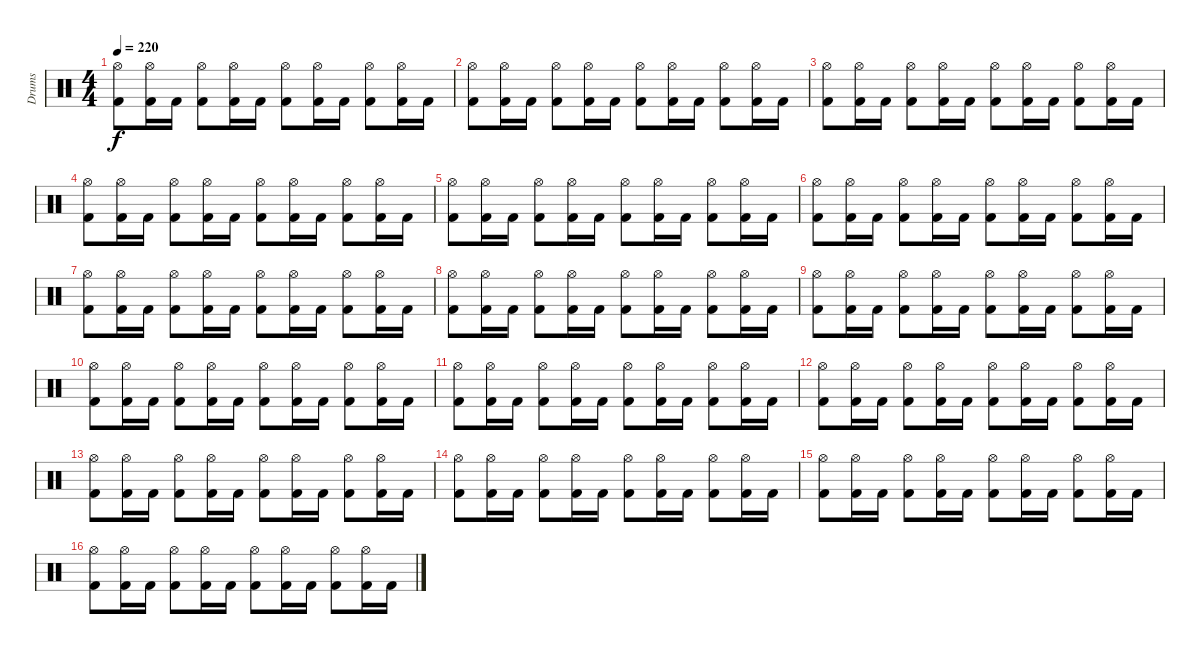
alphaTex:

\track ("Drums" "Drums") {instrument percussion}
\staff {score}
\articulation defaults
\ts (4 4)
\tempo 220
\clef neutral
\ks c
("Hi-Hat (open)" "Kick (hit) 2").8{dy f} ("Hi-Hat (open)" "Kick (hit) 2").16 "Kick (hit) 2".16 ("Hi-Hat (open)" "Kick (hit) 2").8 ("Hi-Hat (open)" "Kick (hit) 2").16 "Kick (hit) 2".16 ("Hi-Hat (open)" "Kick (hit) 2").8 ("Hi-Hat (open)" "Kick (hit) 2").16 "Kick (hit) 2".16 ("Hi-Hat (open)" "Kick (hit) 2").8 ("Hi-Hat (open)" "Kick (hit) 2").16 "Kick (hit) 2".16 |
("Hi-Hat (open)" "Kick (hit) 2").8 ("Hi-Hat (open)" "Kick (hit) 2").16 "Kick (hit) 2".16 ("Hi-Hat (open)" "Kick (hit) 2").8 ("Hi-Hat (open)" "Kick (hit) 2").16 "Kick (hit) 2".16 ("Hi-Hat (open)" "Kick (hit) 2").8 ("Hi-Hat (open)" "Kick (hit) 2").16 "Kick (hit) 2".16 ("Hi-Hat (open)" "Kick (hit) 2").8 ("Hi-Hat (open)" "Kick (hit) 2").16 "Kick (hit) 2".16 |
("Hi-Hat (open)" "Kick (hit) 2").8 ("Hi-Hat (open)" "Kick (hit) 2").16 "Kick (hit) 2".16 ("Hi-Hat (open)" "Kick (hit) 2").8 ("Hi-Hat (open)" "Kick (hit) 2").16 "Kick (hit) 2".16 ("Hi-Hat (open)" "Kick (hit) 2").8 ("Hi-Hat (open)" "Kick (hit) 2").16 "Kick (hit) 2".16 ("Hi-Hat (open)" "Kick (hit) 2").8 ("Hi-Hat (open)" "Kick (hit) 2").16 "Kick (hit) 2".16 |
("Hi-Hat (open)" "Kick (hit) 2").8 ("Hi-Hat (open)" "Kick (hit) 2").16 "Kick (hit) 2".16 ("Hi-Hat (open)" "Kick (hit) 2").8 ("Hi-Hat (open)" "Kick (hit) 2").16 "Kick (hit) 2".16 ("Hi-Hat (open)" "Kick (hit) 2").8 ("Hi-Hat (open)" "Kick (hit) 2").16 "Kick (hit) 2".16 ("Hi-Hat (open)" "Kick (hit) 2").8 ("Hi-Hat (open)" "Kick (hit) 2").16 "Kick (hit) 2".16 |
("Hi-Hat (open)" "Kick (hit) 2").8 ("Hi-Hat (open)" "Kick (hit) 2").16 "Kick (hit) 2".16 ("Hi-Hat (open)" "Kick (hit) 2").8 ("Hi-Hat (open)" "Kick (hit) 2").16 "Kick (hit) 2".16 ("Hi-Hat (open)" "Kick (hit) 2").8 ("Hi-Hat (open)" "Kick (hit) 2").16 "Kick (hit) 2".16 ("Hi-Hat (open)" "Kick (hit) 2").8 ("Hi-Hat (open)" "Kick (hit) 2").16 "Kick (hit) 2".16 |
("Hi-Hat (open)" "Kick (hit) 2").8 ("Hi-Hat (open)" "Kick (hit) 2").16 "Kick (hit) 2".16 ("Hi-Hat (open)" "Kick (hit) 2").8 ("Hi-Hat (open)" "Kick (hit) 2").16 "Kick (hit) 2".16 ("Hi-Hat (open)" "Kick (hit) 2").8 ("Hi-Hat (open)" "Kick (hit) 2").16 "Kick (hit) 2".16 ("Hi-Hat (open)" "Kick (hit) 2").8 ("Hi-Hat (open)" "Kick (hit) 2").16 "Kick (hit) 2".16 |
("Hi-Hat (open)" "Kick (hit) 2").8 ("Hi-Hat (open)" "Kick (hit) 2").16 "Kick (hit) 2".16 ("Hi-Hat (open)" "Kick (hit) 2").8 ("Hi-Hat (open)" "Kick (hit) 2").16 "Kick (hit) 2".16 ("Hi-Hat (open)" "Kick (hit) 2").8 ("Hi-Hat (open)" "Kick (hit) 2").16 "Kick (hit) 2".16 ("Hi-Hat (open)" "Kick (hit) 2").8 ("Hi-Hat (open)" "Kick (hit) 2").16 "Kick (hit) 2".16 |
("Hi-Hat (open)" "Kick (hit) 2").8 ("Hi-Hat (open)" "Kick (hit) 2").16 "Kick (hit) 2".16 ("Hi-Hat (open)" "Kick (hit) 2").8 ("Hi-Hat (open)" "Kick (hit) 2").16 "Kick (hit) 2".16 ("Hi-Hat (open)" "Kick (hit) 2").8 ("Hi-Hat (open)" "Kick (hit) 2").16 "Kick (hit) 2".16 ("Hi-Hat (open)" "Kick (hit) 2").8 ("Hi-Hat (open)" "Kick (hit) 2").16 "Kick (hit) 2".16 |
("Hi-Hat (open)" "Kick (hit) 2").8 ("Hi-Hat (open)" "Kick (hit) 2").16 "Kick (hit) 2".16 ("Hi-Hat (open)" "Kick (hit) 2").8 ("Hi-Hat (open)" "Kick (hit) 2").16 "Kick (hit) 2".16 ("Hi-Hat (open)" "Kick (hit) 2").8 ("Hi-Hat (open)" "Kick (hit) 2").16 "Kick (hit) 2".16 ("Hi-Hat (open)" "Kick (hit) 2").8 ("Hi-Hat (open)" "Kick (hit) 2").16 "Kick (hit) 2".16 |
("Hi-Hat (open)" "Kick (hit) 2").8 ("Hi-Hat (open)" "Kick (hit) 2").16 "Kick (hit) 2".16 ("Hi-Hat (open)" "Kick (hit) 2").8 ("Hi-Hat (open)" "Kick (hit) 2").16 "Kick (hit) 2".16 ("Hi-Hat (open)" "Kick (hit) 2").8 ("Hi-Hat (open)" "Kick (hit) 2").16 "Kick (hit) 2".16 ("Hi-Hat (open)" "Kick (hit) 2").8 ("Hi-Hat (open)" "Kick (hit) 2").16 "Kick (hit) 2".16 |
("Hi-Hat (open)" "Kick (hit) 2").8 ("Hi-Hat (open)" "Kick (hit) 2").16 "Kick (hit) 2".16 ("Hi-Hat (open)" "Kick (hit) 2").8 ("Hi-Hat (open)" "Kick (hit) 2").16 "Kick (hit) 2".16 ("Hi-Hat (open)" "Kick (hit) 2").8 ("Hi-Hat (open)" "Kick (hit) 2").16 "Kick (hit) 2".16 ("Hi-Hat (open)" "Kick (hit) 2").8 ("Hi-Hat (open)" "Kick (hit) 2").16 "Kick (hit) 2".16 |
("Hi-Hat (open)" "Kick (hit) 2").8 ("Hi-Hat (open)" "Kick (hit) 2").16 "Kick (hit) 2".16 ("Hi-Hat (open)" "Kick (hit) 2").8 ("Hi-Hat (open)" "Kick (hit) 2").16 "Kick (hit) 2".16 ("Hi-Hat (open)" "Kick (hit) 2").8 ("Hi-Hat (open)" "Kick (hit) 2").16 "Kick (hit) 2".16 ("Hi-Hat (open)" "Kick (hit) 2").8 ("Hi-Hat (open)" "Kick (hit) 2").16 "Kick (hit) 2".16 |
("Hi-Hat (open)" "Kick (hit) 2").8 ("Hi-Hat (open)" "Kick (hit) 2").16 "Kick (hit) 2".16 ("Hi-Hat (open)" "Kick (hit) 2").8 ("Hi-Hat (open)" "Kick (hit) 2").16 "Kick (hit) 2".16 ("Hi-Hat (open)" "Kick (hit) 2").8 ("Hi-Hat (open)" "Kick (hit) 2").16 "Kick (hit) 2".16 ("Hi-Hat (open)" "Kick (hit) 2").8 ("Hi-Hat (open)" "Kick (hit) 2").16 "Kick (hit) 2".16 |
("Hi-Hat (open)" "Kick (hit) 2").8 ("Hi-Hat (open)" "Kick (hit) 2").16 "Kick (hit) 2".16 ("Hi-Hat (open)" "Kick (hit) 2").8 ("Hi-Hat (open)" "Kick (hit) 2").16 "Kick (hit) 2".16 ("Hi-Hat (open)" "Kick (hit) 2").8 ("Hi-Hat (open)" "Kick (hit) 2").16 "Kick (hit) 2".16 ("Hi-Hat (open)" "Kick (hit) 2").8 ("Hi-Hat (open)" "Kick (hit) 2").16 "Kick (hit) 2".16 |
("Hi-Hat (open)" "Kick (hit) 2").8 ("Hi-Hat (open)" "Kick (hit) 2").16 "Kick (hit) 2".16 ("Hi-Hat (open)" "Kick (hit) 2").8 ("Hi-Hat (open)" "Kick (hit) 2").16 "Kick (hit) 2".16 ("Hi-Hat (open)" "Kick (hit) 2").8 ("Hi-Hat (open)" "Kick (hit) 2").16 "Kick (hit) 2".16 ("Hi-Hat (open)" "Kick (hit) 2").8 ("Hi-Hat (open)" "Kick (hit) 2").16 "Kick (hit) 2".16 |
("Hi-Hat (open)" "Kick (hit) 2").8 ("Hi-Hat (open)" "Kick (hit) 2").16 "Kick (hit) 2".16 ("Hi-Hat (open)" "Kick (hit) 2").8 ("Hi-Hat (open)" "Kick (hit) 2").16 "Kick (hit) 2".16 ("Hi-Hat (open)" "Kick (hit) 2").8 ("Hi-Hat (open)" "Kick (hit) 2").16 "Kick (hit) 2".16 ("Hi-Hat (open)" "Kick (hit) 2").8 ("Hi-Hat (open)" "Kick (hit) 2").16 "Kick (hit) 2".16
